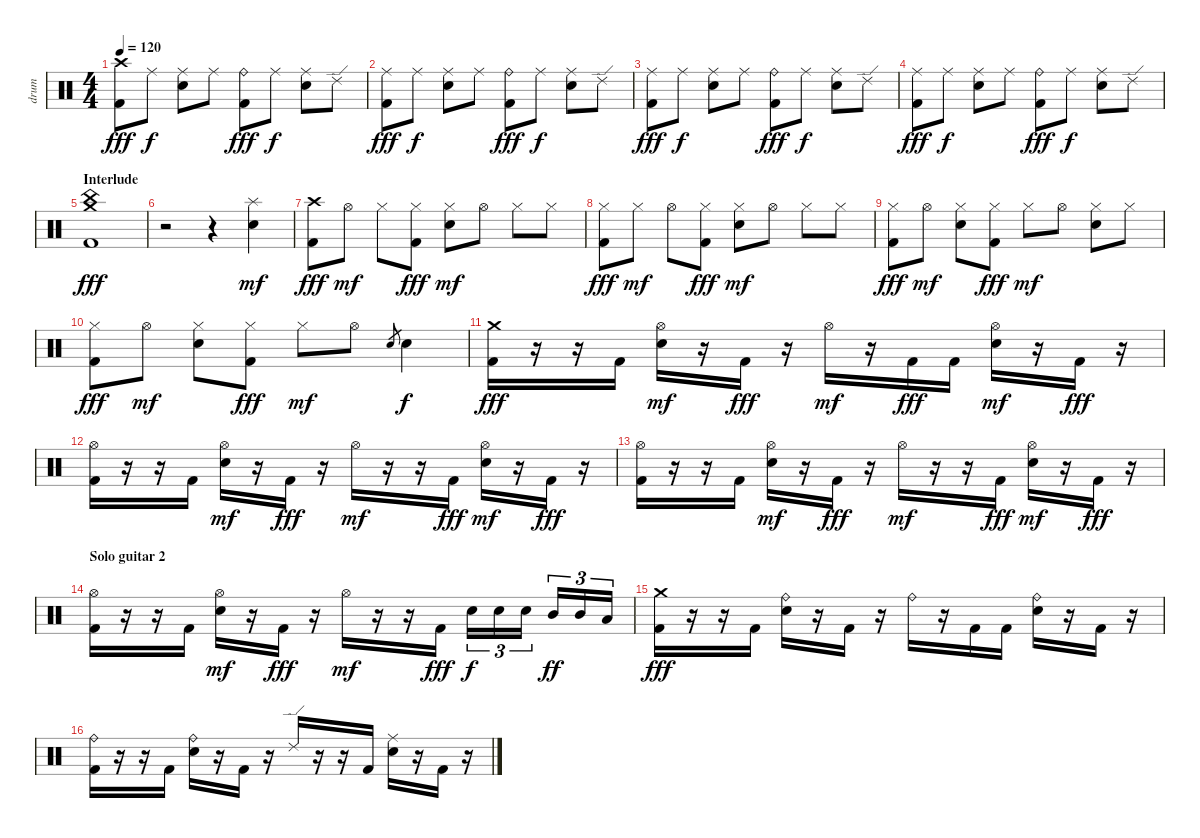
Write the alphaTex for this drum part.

\track ("drum" "drum") {instrument percussion}
\staff {score}
\articulation defaults
\ts (4 4)
\tempo 120
\clef neutral
\ks c
("Crash high (hit)" "Kick (hit) 2").8{dy fff} "Ride (middle)".8{dy f} ("Ride (middle)" "Electric Snare (hit)").8 "Ride (middle)".8 ("Ride (bell)" "Kick (hit) 2").8{dy fff} "Ride (middle)".8{dy f} ("Ride (middle)" "Electric Snare (hit)").8 "Ride (edge) 2".8 |
("Ride (middle)" "Kick (hit) 2").8{dy fff} "Ride (middle)".8{dy f} ("Ride (middle)" "Electric Snare (hit)").8 "Ride (middle)".8 ("Ride (bell)" "Kick (hit) 2").8{dy fff} "Ride (middle)".8{dy f} ("Ride (middle)" "Electric Snare (hit)").8 "Ride (edge) 2".8 |
("Ride (middle)" "Kick (hit) 2").8{dy fff} "Ride (middle)".8{dy f} ("Ride (middle)" "Electric Snare (hit)").8 "Ride (middle)".8 ("Ride (bell)" "Kick (hit) 2").8{dy fff} "Ride (middle)".8{dy f} ("Ride (middle)" "Electric Snare (hit)").8 "Ride (edge) 2".8 |
("Ride (middle)" "Kick (hit) 2").8{dy fff} "Ride (middle)".8{dy f} ("Ride (middle)" "Electric Snare (hit)").8 "Ride (middle)".8 ("Ride (bell)" "Kick (hit) 2").8{dy fff} "Ride (middle)".8{dy f} ("Ride (middle)" "Electric Snare (hit)").8 "Ride (edge) 2".8 |
\section ("" "Interlude")
("Crash medium (hit)" "China (hit)" "Kick (hit) 2").1{dy fff} |
r.2 r.4 ("Splash (hit)" "Electric Snare (hit)").4{dy mf} |
("Crash high (hit)" "Kick (hit) 2").8{dy fff} "Hi-Hat (open)".8{dy mf} "Hi-Hat (closed)".8 ("Hi-Hat (closed)" "Kick (hit) 2").8{dy fff} ("Hi-Hat (closed)" "Electric Snare (hit)").8{dy mf} "Hi-Hat (open)".8 "Hi-Hat (closed)".8 "Hi-Hat (closed)".8 |
("Hi-Hat (closed)" "Kick (hit) 2").8{dy fff} "Hi-Hat (closed)".8{dy mf} "Hi-Hat (open)".8 ("Hi-Hat (closed)" "Kick (hit) 2").8{dy fff} ("Hi-Hat (closed)" "Electric Snare (hit)").8{dy mf} "Hi-Hat (open)".8 "Hi-Hat (closed)".8 "Hi-Hat (closed)".8 |
("Hi-Hat (closed)" "Kick (hit) 2").8{dy fff} "Hi-Hat (open)".8{dy mf} ("Hi-Hat (closed)" "Electric Snare (hit)").8 ("Hi-Hat (closed)" "Kick (hit) 2").8{dy fff} "Hi-Hat (closed)".8{dy mf} "Hi-Hat (open)".8 ("Hi-Hat (closed)" "Electric Snare (hit)").8 "Hi-Hat (closed)".8 |
("Hi-Hat (closed)" "Kick (hit) 2").8{dy fff} "Hi-Hat (open)".8{dy mf} ("Hi-Hat (closed)" "Electric Snare (hit)").8 ("Hi-Hat (closed)" "Kick (hit) 2").8{dy fff} "Hi-Hat (closed)".8{dy mf} "Hi-Hat (open)".8 "Electric Snare (hit)".8{gr} "Electric Snare (hit)".4{dy f} |
("Crash medium (hit)" "Kick (hit) 2").16{dy fff} r.16 r.16 "Kick (hit) 2".16 ("Hi-Hat (open)" "Electric Snare (hit)").16{dy mf} r.16 "Kick (hit) 2".16{dy fff} r.16 "Hi-Hat (open)".16{dy mf} r.16 "Kick (hit) 2".16{dy fff} "Kick (hit) 2".16 ("Hi-Hat (open)" "Electric Snare (hit)").16{dy mf} r.16 "Kick (hit) 2".16{dy fff} r.16 |
("Hi-Hat (open)" "Kick (hit) 2").16 r.16 r.16 "Kick (hit) 2".16 ("Hi-Hat (open)" "Electric Snare (hit)").16{dy mf} r.16 "Kick (hit) 2".16{dy fff} r.16 "Hi-Hat (open)".16{dy mf} r.16 r.16 "Kick (hit) 2".16{dy fff} ("Hi-Hat (open)" "Electric Snare (hit)").16{dy mf} r.16 "Kick (hit) 2".16{dy fff} r.16 |
("Hi-Hat (open)" "Kick (hit) 2").16 r.16 r.16 "Kick (hit) 2".16 ("Hi-Hat (open)" "Electric Snare (hit)").16{dy mf} r.16 "Kick (hit) 2".16{dy fff} r.16 "Hi-Hat (open)".16{dy mf} r.16 r.16 "Kick (hit) 2".16{dy fff} ("Hi-Hat (open)" "Electric Snare (hit)").16{dy mf} r.16 "Kick (hit) 2".16{dy fff} r.16 |
\section ("" "Solo guitar 2")
("Hi-Hat (open)" "Kick (hit) 2").16 r.16 r.16 "Kick (hit) 2".16 ("Hi-Hat (open)" "Electric Snare (hit)").16{dy mf} r.16 "Kick (hit) 2".16{dy fff} r.16 "Hi-Hat (open)".16{dy mf} r.16 r.16 "Kick (hit) 2".16{dy fff} "Electric Snare (hit)".16{tu (3 2) dy f} "Electric Snare (hit)".16{tu (3 2)} "Electric Snare (hit)".16{tu (3 2)} "Mid Tom (hit)".16{tu (3 2) dy ff} "Mid Tom (hit)".16{tu (3 2)} "Low Tom (hit)".16{tu (3 2)} |
("Crash medium (hit)" "Kick (hit) 2").16{dy fff} r.16 r.16 "Kick (hit) 2".16 ("Ride (bell)" "Electric Snare (hit)").16 r.16 "Kick (hit) 2".16 r.16 "Ride (bell)".16 r.16 "Kick (hit) 2".16 "Kick (hit) 2".16 ("Ride (bell)" "Electric Snare (hit)").16 r.16 "Kick (hit) 2".16 r.16 |
("Ride (bell)" "Kick (hit) 2").16 r.16 r.16 "Kick (hit) 2".16 ("Ride (bell)" "Electric Snare (hit)").16 r.16 "Kick (hit) 2".16 r.16 "Ride (edge) 2".16 r.16 r.16 "Kick (hit) 2".16 ("Ride (middle)" "Electric Snare (hit)").16 r.16 "Kick (hit) 2".16 r.16
